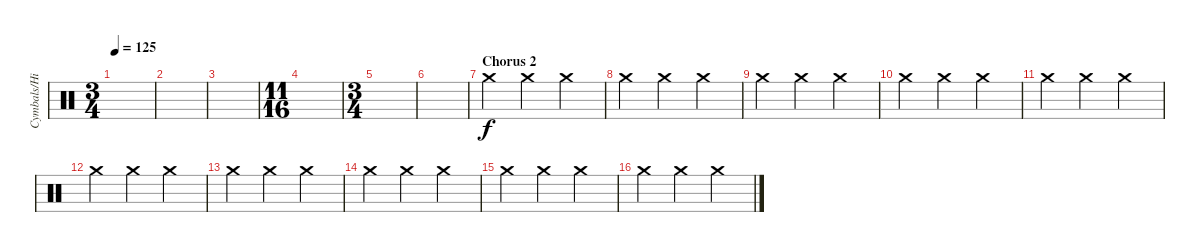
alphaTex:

\track ("Cymbals/Hi-hat" "Cymbals/Hi") {instrument percussion}
\staff {score}
\articulation defaults
\ts (3 4)
\tempo 125
\clef neutral
\ks c
|
|
|
\ts (11 16)
|
\ts (3 4)
|
|
\section ("" "Chorus 2")
"Crash medium (hit)".4 "Crash medium (hit)".4 "Crash medium (hit)".4 |
"Crash medium (hit)".4 "Crash medium (hit)".4 "Crash medium (hit)".4 |
"Crash medium (hit)".4 "Crash medium (hit)".4 "Crash medium (hit)".4 |
"Crash medium (hit)".4 "Crash medium (hit)".4 "Crash medium (hit)".4 |
"Crash medium (hit)".4 "Crash medium (hit)".4 "Crash medium (hit)".4 |
"Crash medium (hit)".4 "Crash medium (hit)".4 "Crash medium (hit)".4 |
"Crash medium (hit)".4 "Crash medium (hit)".4 "Crash medium (hit)".4 |
"Crash medium (hit)".4 "Crash medium (hit)".4 "Crash medium (hit)".4 |
"Crash medium (hit)".4 "Crash medium (hit)".4 "Crash medium (hit)".4 |
"Crash medium (hit)".4 "Crash medium (hit)".4 "Crash medium (hit)".4
